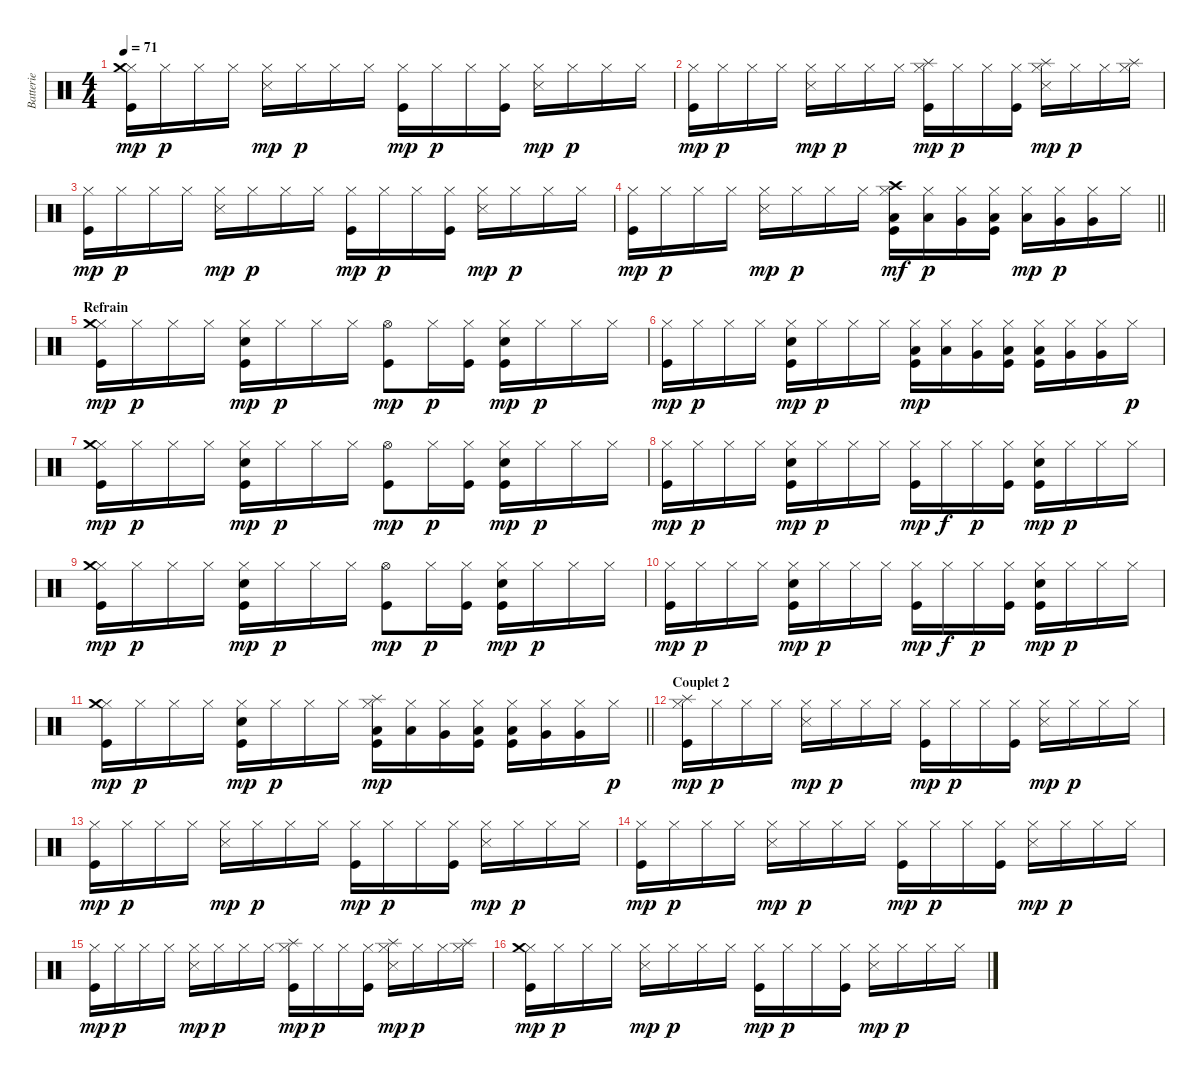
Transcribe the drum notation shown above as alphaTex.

\track ("Batterie" "Batterie") {instrument percussion}
\staff {score}
\articulation defaults
\ts (4 4)
\tempo 71
\clef neutral
\ks c
("Hi-Hat (closed)" "Crash medium (hit)" "Kick (hit)").16{dy mp} "Hi-Hat (closed)".16{dy p} "Hi-Hat (closed)".16 "Hi-Hat (closed)".16 ("Hi-Hat (closed)" "Snare (side stick) 3").16{dy mp} "Hi-Hat (closed)".16{dy p} "Hi-Hat (closed)".16 "Hi-Hat (closed)".16 ("Hi-Hat (closed)" "Kick (hit)").16{dy mp} "Hi-Hat (closed)".16{dy p} "Hi-Hat (closed)".16 ("Hi-Hat (closed)" "Kick (hit)").16 ("Hi-Hat (closed)" "Snare (side stick) 3").16{dy mp} "Hi-Hat (closed)".16{dy p} "Hi-Hat (closed)".16 "Hi-Hat (closed)".16 |
("Hi-Hat (closed)" "Kick (hit)").16{dy mp} "Hi-Hat (closed)".16{dy p} "Hi-Hat (closed)".16 "Hi-Hat (closed)".16 ("Hi-Hat (closed)" "Snare (side stick) 3").16{dy mp} "Hi-Hat (closed)".16{dy p} "Hi-Hat (closed)".16 "Hi-Hat (closed)".16 ("Hi-Hat (closed)" "Splash (hit)" "Kick (hit)").16{dy mp} "Hi-Hat (closed)".16{dy p} "Hi-Hat (closed)".16 ("Hi-Hat (closed)" "Kick (hit)").16 ("Hi-Hat (closed)" "Splash (hit)" "Snare (side stick) 3").16{dy mp} "Hi-Hat (closed)".16{dy p} "Hi-Hat (closed)".16 ("Hi-Hat (closed)" "Splash (hit)").16 |
("Hi-Hat (closed)" "Kick (hit)").16{dy mp} "Hi-Hat (closed)".16{dy p} "Hi-Hat (closed)".16 "Hi-Hat (closed)".16 ("Hi-Hat (closed)" "Snare (side stick) 3").16{dy mp} "Hi-Hat (closed)".16{dy p} "Hi-Hat (closed)".16 "Hi-Hat (closed)".16 ("Hi-Hat (closed)" "Kick (hit)").16{dy mp} "Hi-Hat (closed)".16{dy p} "Hi-Hat (closed)".16 ("Hi-Hat (closed)" "Kick (hit)").16 ("Hi-Hat (closed)" "Snare (side stick) 3").16{dy mp} "Hi-Hat (closed)".16{dy p} "Hi-Hat (closed)".16 "Hi-Hat (closed)".16 |
\barLineRight lightlight
("Hi-Hat (closed)" "Kick (hit)").16{dy mp} "Hi-Hat (closed)".16{dy p} "Hi-Hat (closed)".16 "Hi-Hat (closed)".16 ("Hi-Hat (closed)" "Snare (side stick) 3").16{dy mp} "Hi-Hat (closed)".16{dy p} "Hi-Hat (closed)".16 "Hi-Hat (closed)".16 ("Hi-Hat (closed)" "Crash high (hit)" "Low Tom (hit)" "Kick (hit)").16{dy mf} ("Hi-Hat (closed)" "Low Tom (hit)").16{dy p} ("Hi-Hat (closed)" "Very Low Tom (hit)").16 ("Hi-Hat (closed)" "Low Floor Tom (hit)" "Kick (hit)").16 ("Hi-Hat (closed)" "Low Floor Tom (hit)").16{dy mp} ("Hi-Hat (closed)" "Very Low Tom (hit)").16{dy p} ("Hi-Hat (closed)" "Very Low Tom (hit)").16 "Hi-Hat (closed)".16 |
\section ("" "Refrain")
("Hi-Hat (closed)" "Crash medium (hit)" "Kick (hit)").16{dy mp} "Hi-Hat (closed)".16{dy p} "Hi-Hat (closed)".16 "Hi-Hat (closed)".16 ("Hi-Hat (closed)" "Electric Snare (hit)" "Kick (hit)").16{dy mp} "Hi-Hat (closed)".16{dy p} "Hi-Hat (closed)".16 "Hi-Hat (closed)".16 ("Hi-Hat (open)" "Kick (hit)").8{dy mp} "Hi-Hat (closed)".16{dy p} ("Hi-Hat (closed)" "Kick (hit)").16 ("Hi-Hat (closed)" "Electric Snare (hit)" "Kick (hit)").16{dy mp} "Hi-Hat (closed)".16{dy p} "Hi-Hat (closed)".16 "Hi-Hat (closed)".16 |
("Hi-Hat (closed)" "Kick (hit)").16{dy mp} "Hi-Hat (closed)".16{dy p} "Hi-Hat (closed)".16 "Hi-Hat (closed)".16 ("Hi-Hat (closed)" "Electric Snare (hit)" "Kick (hit)").16{dy mp} "Hi-Hat (closed)".16{dy p} "Hi-Hat (closed)".16 "Hi-Hat (closed)".16 ("Hi-Hat (closed)" "Low Tom (hit)" "Kick (hit)").16{dy mp} ("Hi-Hat (closed)" "Low Tom (hit)").16 ("Hi-Hat (closed)" "Very Low Tom (hit)").16 ("Hi-Hat (closed)" "Low Floor Tom (hit)" "Kick (hit)").16 ("Hi-Hat (closed)" "Low Floor Tom (hit)" "Kick (hit)").16 ("Hi-Hat (closed)" "Very Low Tom (hit)").16 ("Hi-Hat (closed)" "Very Low Tom (hit)").16 "Hi-Hat (closed)".16{dy p} |
("Hi-Hat (closed)" "Crash medium (hit)" "Kick (hit)").16{dy mp} "Hi-Hat (closed)".16{dy p} "Hi-Hat (closed)".16 "Hi-Hat (closed)".16 ("Hi-Hat (closed)" "Electric Snare (hit)" "Kick (hit)").16{dy mp} "Hi-Hat (closed)".16{dy p} "Hi-Hat (closed)".16 "Hi-Hat (closed)".16 ("Hi-Hat (open)" "Kick (hit)").8{dy mp} "Hi-Hat (closed)".16{dy p} ("Hi-Hat (closed)" "Kick (hit)").16 ("Hi-Hat (closed)" "Electric Snare (hit)" "Kick (hit)").16{dy mp} "Hi-Hat (closed)".16{dy p} "Hi-Hat (closed)".16 "Hi-Hat (closed)".16 |
("Hi-Hat (closed)" "Kick (hit)").16{dy mp} "Hi-Hat (closed)".16{dy p} "Hi-Hat (closed)".16 "Hi-Hat (closed)".16 ("Hi-Hat (closed)" "Electric Snare (hit)" "Kick (hit)").16{dy mp} "Hi-Hat (closed)".16{dy p} "Hi-Hat (closed)".16 "Hi-Hat (closed)".16 ("Hi-Hat (closed)" "Kick (hit)").16{dy mp} "Hi-Hat (closed)".16{dy f} "Hi-Hat (closed)".16{dy p} ("Hi-Hat (closed)" "Kick (hit)").16 ("Hi-Hat (closed)" "Electric Snare (hit)" "Kick (hit)").16{dy mp} "Hi-Hat (closed)".16{dy p} "Hi-Hat (closed)".16 "Hi-Hat (closed)".16 |
("Hi-Hat (closed)" "Crash medium (hit)" "Kick (hit)").16{dy mp} "Hi-Hat (closed)".16{dy p} "Hi-Hat (closed)".16 "Hi-Hat (closed)".16 ("Hi-Hat (closed)" "Electric Snare (hit)" "Kick (hit)").16{dy mp} "Hi-Hat (closed)".16{dy p} "Hi-Hat (closed)".16 "Hi-Hat (closed)".16 ("Hi-Hat (open)" "Kick (hit)").8{dy mp} "Hi-Hat (closed)".16{dy p} ("Hi-Hat (closed)" "Kick (hit)").16 ("Hi-Hat (closed)" "Electric Snare (hit)" "Kick (hit)").16{dy mp} "Hi-Hat (closed)".16{dy p} "Hi-Hat (closed)".16 "Hi-Hat (closed)".16 |
("Hi-Hat (closed)" "Kick (hit)").16{dy mp} "Hi-Hat (closed)".16{dy p} "Hi-Hat (closed)".16 "Hi-Hat (closed)".16 ("Hi-Hat (closed)" "Electric Snare (hit)" "Kick (hit)").16{dy mp} "Hi-Hat (closed)".16{dy p} "Hi-Hat (closed)".16 "Hi-Hat (closed)".16 ("Hi-Hat (closed)" "Kick (hit)").16{dy mp} "Hi-Hat (closed)".16{dy f} "Hi-Hat (closed)".16{dy p} ("Hi-Hat (closed)" "Kick (hit)").16 ("Hi-Hat (closed)" "Electric Snare (hit)" "Kick (hit)").16{dy mp} "Hi-Hat (closed)".16{dy p} "Hi-Hat (closed)".16 "Hi-Hat (closed)".16 |
\barLineRight lightlight
("Hi-Hat (closed)" "Crash medium (hit)" "Kick (hit)").16{dy mp} "Hi-Hat (closed)".16{dy p} "Hi-Hat (closed)".16 "Hi-Hat (closed)".16 ("Hi-Hat (closed)" "Electric Snare (hit)" "Kick (hit)").16{dy mp} "Hi-Hat (closed)".16{dy p} "Hi-Hat (closed)".16 "Hi-Hat (closed)".16 ("Hi-Hat (closed)" "Splash (hit)" "Low Tom (hit)" "Kick (hit)").16{dy mp} ("Hi-Hat (closed)" "Low Tom (hit)").16 ("Hi-Hat (closed)" "Very Low Tom (hit)").16 ("Hi-Hat (closed)" "Low Floor Tom (hit)" "Kick (hit)").16 ("Hi-Hat (closed)" "Low Floor Tom (hit)" "Kick (hit)").16 ("Hi-Hat (closed)" "Very Low Tom (hit)").16 ("Hi-Hat (closed)" "Very Low Tom (hit)").16 "Hi-Hat (closed)".16{dy p} |
\section ("" "Couplet 2")
("Hi-Hat (closed)" "Splash (hit)" "Kick (hit)").16{dy mp} "Hi-Hat (closed)".16{dy p} "Hi-Hat (closed)".16 "Hi-Hat (closed)".16 ("Hi-Hat (closed)" "Snare (side stick) 3").16{dy mp} "Hi-Hat (closed)".16{dy p} "Hi-Hat (closed)".16 "Hi-Hat (closed)".16 ("Hi-Hat (closed)" "Kick (hit)").16{dy mp} "Hi-Hat (closed)".16{dy p} "Hi-Hat (closed)".16 ("Hi-Hat (closed)" "Kick (hit)").16 ("Hi-Hat (closed)" "Snare (side stick) 3").16{dy mp} "Hi-Hat (closed)".16{dy p} "Hi-Hat (closed)".16 "Hi-Hat (closed)".16 |
("Hi-Hat (closed)" "Kick (hit)").16{dy mp} "Hi-Hat (closed)".16{dy p} "Hi-Hat (closed)".16 "Hi-Hat (closed)".16 ("Hi-Hat (closed)" "Snare (side stick) 3").16{dy mp} "Hi-Hat (closed)".16{dy p} "Hi-Hat (closed)".16 "Hi-Hat (closed)".16 ("Hi-Hat (closed)" "Kick (hit)").16{dy mp} "Hi-Hat (closed)".16{dy p} "Hi-Hat (closed)".16 ("Hi-Hat (closed)" "Kick (hit)").16 ("Hi-Hat (closed)" "Snare (side stick) 3").16{dy mp} "Hi-Hat (closed)".16{dy p} "Hi-Hat (closed)".16 "Hi-Hat (closed)".16 |
("Hi-Hat (closed)" "Kick (hit)").16{dy mp} "Hi-Hat (closed)".16{dy p} "Hi-Hat (closed)".16 "Hi-Hat (closed)".16 ("Hi-Hat (closed)" "Snare (side stick) 3").16{dy mp} "Hi-Hat (closed)".16{dy p} "Hi-Hat (closed)".16 "Hi-Hat (closed)".16 ("Hi-Hat (closed)" "Kick (hit)").16{dy mp} "Hi-Hat (closed)".16{dy p} "Hi-Hat (closed)".16 ("Hi-Hat (closed)" "Kick (hit)").16 ("Hi-Hat (closed)" "Snare (side stick) 3").16{dy mp} "Hi-Hat (closed)".16{dy p} "Hi-Hat (closed)".16 "Hi-Hat (closed)".16 |
("Hi-Hat (closed)" "Kick (hit)").16{dy mp} "Hi-Hat (closed)".16{dy p} "Hi-Hat (closed)".16 "Hi-Hat (closed)".16 ("Hi-Hat (closed)" "Snare (side stick) 3").16{dy mp} "Hi-Hat (closed)".16{dy p} "Hi-Hat (closed)".16 "Hi-Hat (closed)".16 ("Hi-Hat (closed)" "Splash (hit)" "Kick (hit)").16{dy mp} "Hi-Hat (closed)".16{dy p} "Hi-Hat (closed)".16 ("Hi-Hat (closed)" "Kick (hit)").16 ("Hi-Hat (closed)" "Splash (hit)" "Snare (side stick) 3").16{dy mp} "Hi-Hat (closed)".16{dy p} "Hi-Hat (closed)".16 ("Hi-Hat (closed)" "Splash (hit)").16 |
("Hi-Hat (closed)" "Crash medium (hit)" "Kick (hit)").16{dy mp} "Hi-Hat (closed)".16{dy p} "Hi-Hat (closed)".16 "Hi-Hat (closed)".16 ("Hi-Hat (closed)" "Snare (side stick) 3").16{dy mp} "Hi-Hat (closed)".16{dy p} "Hi-Hat (closed)".16 "Hi-Hat (closed)".16 ("Hi-Hat (closed)" "Kick (hit)").16{dy mp} "Hi-Hat (closed)".16{dy p} "Hi-Hat (closed)".16 ("Hi-Hat (closed)" "Kick (hit)").16 ("Hi-Hat (closed)" "Snare (side stick) 3").16{dy mp} "Hi-Hat (closed)".16{dy p} "Hi-Hat (closed)".16 "Hi-Hat (closed)".16
